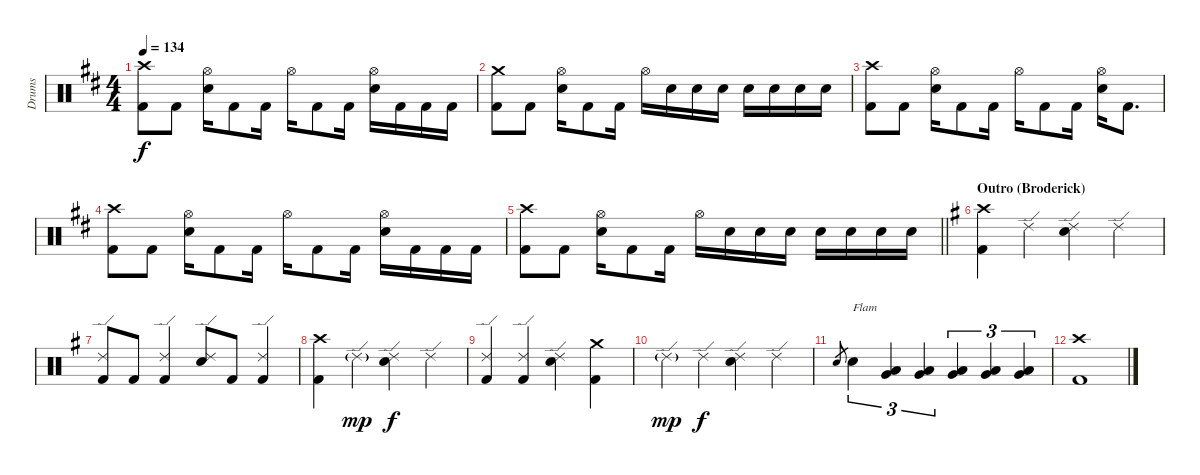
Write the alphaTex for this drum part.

\track ("Drums" "Drums") {instrument percussion}
\staff {score}
\articulation defaults
\ts (4 4)
\tempo 134
\clef neutral
\ks bminor
("Crash high (hit)" "Kick (hit) 2").8{dy f} "Kick (hit) 2".8 ("Hi-Hat (open)" "Snare (hit) 2").16 "Kick (hit) 2".8 "Kick (hit) 2".16 "Hi-Hat (open)".16 "Kick (hit) 2".8 "Kick (hit) 2".16 ("Hi-Hat (open)" "Snare (hit) 2").16 "Kick (hit) 2".16 "Kick (hit) 2".16 "Kick (hit) 2".16 |
("Crash medium (hit)" "Kick (hit) 2").8 "Kick (hit) 2".8 ("Hi-Hat (open)" "Snare (hit) 2").16 "Kick (hit) 2".8 "Kick (hit) 2".16 "Hi-Hat (open)".16 "Snare (hit) 2".16 "Snare (hit) 2".16 "Snare (hit) 2".16 "Snare (hit) 2".16 "Snare (hit) 2".16 "Snare (hit) 2".16 "Snare (hit) 2".16 |
("Crash high (hit)" "Kick (hit) 2").8 "Kick (hit) 2".8 ("Hi-Hat (open)" "Snare (hit) 2").16 "Kick (hit) 2".8 "Kick (hit) 2".16 "Hi-Hat (open)".16 "Kick (hit) 2".8 "Kick (hit) 2".16 ("Hi-Hat (open)" "Snare (hit) 2").16 "Kick (hit) 2".8{d} |
("Crash high (hit)" "Kick (hit) 2").8 "Kick (hit) 2".8 ("Hi-Hat (open)" "Snare (hit) 2").16 "Kick (hit) 2".8 "Kick (hit) 2".16 "Hi-Hat (open)".16 "Kick (hit) 2".8 "Kick (hit) 2".16 ("Hi-Hat (open)" "Snare (hit) 2").16 "Kick (hit) 2".16 "Kick (hit) 2".16 "Kick (hit) 2".16 |
\barLineRight lightlight
("Crash high (hit)" "Kick (hit) 2").8 "Kick (hit) 2".8 ("Hi-Hat (open)" "Snare (hit) 2").16 "Kick (hit) 2".8 "Kick (hit) 2".16 "Hi-Hat (open)".16 "Snare (hit) 2".16 "Snare (hit) 2".16 "Snare (hit) 2".16 "Snare (hit) 2".16 "Snare (hit) 2".16 "Snare (hit) 2".16 "Snare (hit) 2".16 |
\section ("" "Outro (Broderick)")
\ks eminor
("Crash high (hit)" "Kick (hit) 2").4 "Ride (edge) 2".4 ("Ride (edge) 2" "Snare (hit) 2").4 "Ride (edge) 2".4 |
("Ride (edge) 2" "Kick (hit) 2").8 "Kick (hit) 2".8 ("Ride (edge) 2" "Kick (hit) 2").4 ("Ride (edge) 2" "Snare (hit) 2").8 "Kick (hit) 2".8 ("Ride (edge) 2" "Kick (hit) 2").4 |
("Crash high (hit)" "Kick (hit) 2").4 "Ride (edge) 2"{g}.4{dy mp} ("Ride (edge) 2" "Snare (hit) 2").4{dy f} "Ride (edge) 2".4 |
("Ride (edge) 2" "Kick (hit) 2").4 ("Ride (edge) 2" "Kick (hit) 2").4 ("Ride (edge) 2" "Snare (hit) 2").4 ("Crash medium (hit)" "Kick (hit) 2").4 |
"Ride (edge) 2"{g}.4{dy mp} "Ride (edge) 2".4{dy f} ("Ride (edge) 2" "Snare (hit) 2").4 "Ride (edge) 2".4 |
"Snare (hit) 2".8{gr} "Snare (hit) 2".4{tu (3 2) txt "Flam"} ("Low Tom (hit)" "Very Low Tom (hit)").4{tu (3 2)} ("Low Tom (hit)" "Very Low Tom (hit)").4{tu (3 2)} ("Low Tom (hit)" "Very Low Tom (hit)").4{tu (3 2)} ("Low Tom (hit)" "Very Low Tom (hit)").4{tu (3 2)} ("Low Tom (hit)" "Very Low Tom (hit)").4{tu (3 2)} |
("Crash high (hit)" "Kick (hit) 2").1
